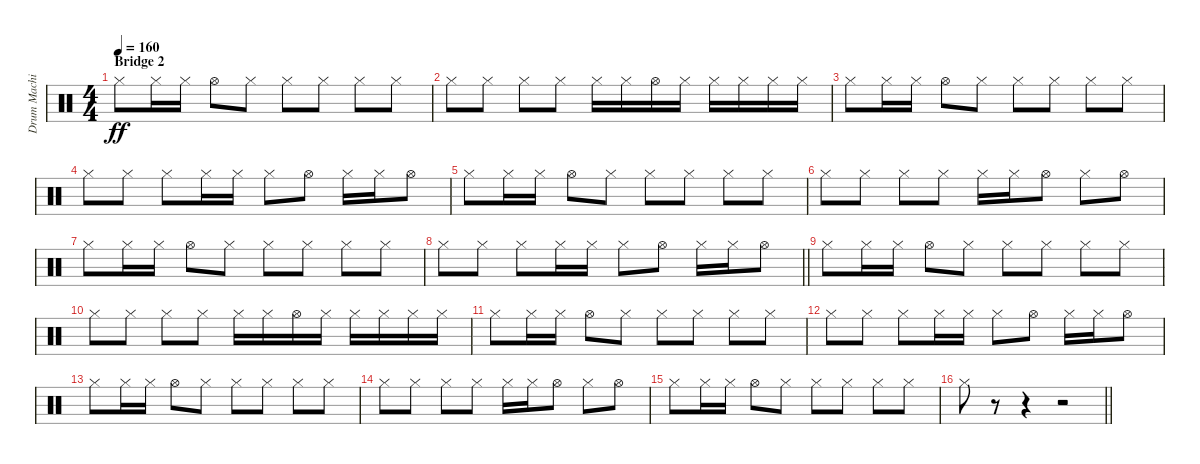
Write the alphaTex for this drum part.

\track ("Drum Machine" "Drum Machi") {instrument percussion}
\staff {score}
\articulation defaults
\ts (4 4)
\section ("" "Bridge 2")
\tempo 160
\clef neutral
\ks c "Hi-Hat (closed)".8{dy ff} "Hi-Hat (closed)".16 "Hi-Hat (closed)".16 "Hi-Hat (open)".8 "Hi-Hat (closed)".8 "Hi-Hat (closed)".8 "Hi-Hat (closed)".8 "Hi-Hat (closed)".8 "Hi-Hat (closed)".8
|
"Hi-Hat (closed)".8 "Hi-Hat (closed)".8 "Hi-Hat (closed)".8 "Hi-Hat (closed)".8 "Hi-Hat (closed)".16 "Hi-Hat (closed)".16 "Hi-Hat (open)".16 "Hi-Hat (closed)".16 "Hi-Hat (closed)".16 "Hi-Hat (closed)".16 "Hi-Hat (closed)".16 "Hi-Hat (closed)".16 |
"Hi-Hat (closed)".8 "Hi-Hat (closed)".16 "Hi-Hat (closed)".16 "Hi-Hat (open)".8 "Hi-Hat (closed)".8 "Hi-Hat (closed)".8 "Hi-Hat (closed)".8 "Hi-Hat (closed)".8 "Hi-Hat (closed)".8 |
"Hi-Hat (closed)".8 "Hi-Hat (closed)".8 "Hi-Hat (closed)".8 "Hi-Hat (closed)".16 "Hi-Hat (closed)".16 "Hi-Hat (closed)".8 "Hi-Hat (open)".8 "Hi-Hat (closed)".16 "Hi-Hat (closed)".16 "Hi-Hat (open)".8 |
"Hi-Hat (closed)".8 "Hi-Hat (closed)".16 "Hi-Hat (closed)".16 "Hi-Hat (open)".8 "Hi-Hat (closed)".8 "Hi-Hat (closed)".8 "Hi-Hat (closed)".8 "Hi-Hat (closed)".8 "Hi-Hat (closed)".8 |
"Hi-Hat (closed)".8 "Hi-Hat (closed)".8 "Hi-Hat (closed)".8 "Hi-Hat (closed)".8 "Hi-Hat (closed)".16 "Hi-Hat (closed)".16 "Hi-Hat (open)".8 "Hi-Hat (closed)".8 "Hi-Hat (open)".8 |
"Hi-Hat (closed)".8 "Hi-Hat (closed)".16 "Hi-Hat (closed)".16 "Hi-Hat (open)".8 "Hi-Hat (closed)".8 "Hi-Hat (closed)".8 "Hi-Hat (closed)".8 "Hi-Hat (closed)".8 "Hi-Hat (closed)".8 |
\barLineRight lightlight "Hi-Hat (closed)".8 "Hi-Hat (closed)".8 "Hi-Hat (closed)".8 "Hi-Hat (closed)".16 "Hi-Hat (closed)".16 "Hi-Hat (closed)".8 "Hi-Hat (open)".8 "Hi-Hat (closed)".16 "Hi-Hat (closed)".16 "Hi-Hat (open)".8
|
\section ("" "")
"Hi-Hat (closed)".8 "Hi-Hat (closed)".16 "Hi-Hat (closed)".16 "Hi-Hat (open)".8 "Hi-Hat (closed)".8 "Hi-Hat (closed)".8 "Hi-Hat (closed)".8 "Hi-Hat (closed)".8 "Hi-Hat (closed)".8 |
"Hi-Hat (closed)".8 "Hi-Hat (closed)".8 "Hi-Hat (closed)".8 "Hi-Hat (closed)".8 "Hi-Hat (closed)".16 "Hi-Hat (closed)".16 "Hi-Hat (open)".16 "Hi-Hat (closed)".16 "Hi-Hat (closed)".16 "Hi-Hat (closed)".16 "Hi-Hat (closed)".16 "Hi-Hat (closed)".16 |
"Hi-Hat (closed)".8 "Hi-Hat (closed)".16 "Hi-Hat (closed)".16 "Hi-Hat (open)".8 "Hi-Hat (closed)".8 "Hi-Hat (closed)".8 "Hi-Hat (closed)".8 "Hi-Hat (closed)".8 "Hi-Hat (closed)".8 |
"Hi-Hat (closed)".8 "Hi-Hat (closed)".8 "Hi-Hat (closed)".8 "Hi-Hat (closed)".16 "Hi-Hat (closed)".16 "Hi-Hat (closed)".8 "Hi-Hat (open)".8 "Hi-Hat (closed)".16 "Hi-Hat (closed)".16 "Hi-Hat (open)".8 |
"Hi-Hat (closed)".8 "Hi-Hat (closed)".16 "Hi-Hat (closed)".16 "Hi-Hat (open)".8 "Hi-Hat (closed)".8 "Hi-Hat (closed)".8 "Hi-Hat (closed)".8 "Hi-Hat (closed)".8 "Hi-Hat (closed)".8 |
"Hi-Hat (closed)".8 "Hi-Hat (closed)".8 "Hi-Hat (closed)".8 "Hi-Hat (closed)".8 "Hi-Hat (closed)".16 "Hi-Hat (closed)".16 "Hi-Hat (open)".8 "Hi-Hat (closed)".8 "Hi-Hat (open)".8 |
"Hi-Hat (closed)".8 "Hi-Hat (closed)".16 "Hi-Hat (closed)".16 "Hi-Hat (open)".8 "Hi-Hat (closed)".8 "Hi-Hat (closed)".8 "Hi-Hat (closed)".8 "Hi-Hat (closed)".8 "Hi-Hat (closed)".8 |
\barLineRight lightlight "Hi-Hat (closed)".8
r.8 r.4 r.2
